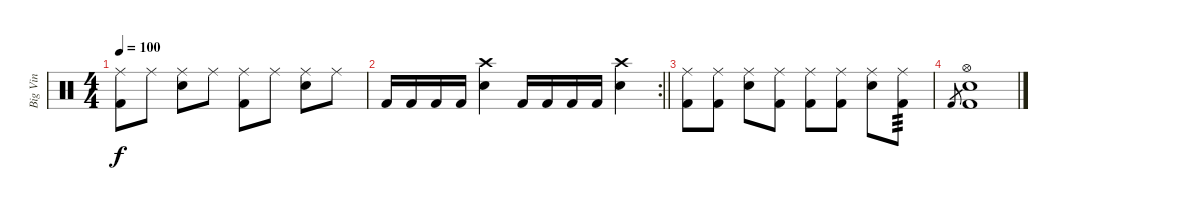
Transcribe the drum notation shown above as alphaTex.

\track ("Big Vin" "Big Vin") {instrument percussion}
\staff {score}
\articulation defaults
\ts (4 4)
\tempo 100
\clef neutral
\ks c
("Ride (middle)" "Kick (hit) 2").8{dy f} "Ride (middle)".8 ("Ride (middle)" "Electric Snare (hit)").8 "Ride (middle)".8 ("Ride (middle)" "Kick (hit) 2").8 "Ride (middle)".8 ("Ride (middle)" "Electric Snare (hit)").8 "Ride (middle)".8 |
\rc 2
\barLineRight lightlight "Kick (hit) 2".16 "Kick (hit) 2".16 "Kick (hit) 2".16 "Kick (hit) 2".16
("Crash high (hit)" "Electric Snare (hit)").4 "Kick (hit) 2".16 "Kick (hit) 2".16 "Kick (hit) 2".16 "Kick (hit) 2".16 ("Crash high (hit)" "Electric Snare (hit)").4 |
("Ride (middle)" "Kick (hit) 2").8 ("Ride (middle)" "Kick (hit) 2").8 ("Ride (middle)" "Electric Snare (hit)").8 ("Ride (middle)" "Kick (hit) 2").8 ("Ride (middle)" "Kick (hit) 2").8 ("Ride (middle)" "Kick (hit) 2").8 ("Ride (middle)" "Electric Snare (hit)").8 ("Ride (middle)" "Kick (hit) 2").8{tp 3} |
"Kick (hit) 2".8{gr} ("Electric Snare (hit)" "Hi-Hat (open)" "Kick (hit) 2").1
